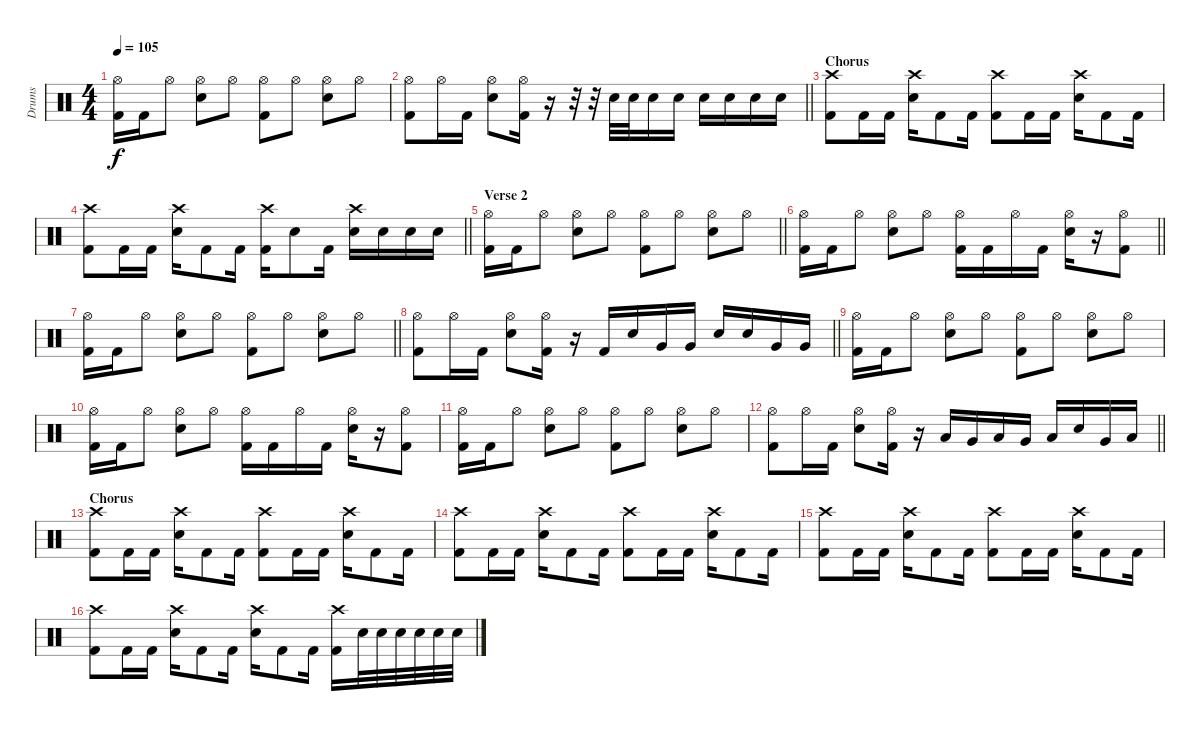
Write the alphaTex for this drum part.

\track ("Drums" "Drums") {instrument percussion}
\staff {score}
\articulation defaults
\ts (4 4)
\tempo 105
\clef neutral
\ks c
("Hi-Hat (open)" "Kick (hit) 2").16{dy f} "Kick (hit) 2".16 "Hi-Hat (open)".8 ("Hi-Hat (open)" "Snare (hit) 2").8 "Hi-Hat (open)".8 ("Hi-Hat (open)" "Kick (hit) 2").8 "Hi-Hat (open)".8 ("Hi-Hat (open)" "Snare (hit) 2").8 "Hi-Hat (open)".8 |
\barLineRight lightlight
("Hi-Hat (open)" "Kick (hit) 2").8 "Hi-Hat (open)".16 "Kick (hit) 2".16 ("Hi-Hat (open)" "Snare (hit) 2").8 ("Hi-Hat (open)" "Kick (hit) 2").16 r.16 r.32 r.32 "Snare (hit) 2".32 "Snare (hit) 2".32 "Snare (hit) 2".16 "Snare (hit) 2".16 "Snare (hit) 2".16 "Snare (hit) 2".16 "Snare (hit) 2".16 "Snare (hit) 2".16 |
\section ("" "Chorus")
("Crash high (hit)" "Kick (hit) 2").8 "Kick (hit) 2".16 "Kick (hit) 2".16 ("Crash high (hit)" "Snare (hit) 2").16 "Kick (hit) 2".8 "Kick (hit) 2".16 ("Crash high (hit)" "Kick (hit) 2").8 "Kick (hit) 2".16 "Kick (hit) 2".16 ("Crash high (hit)" "Snare (hit) 2").16 "Kick (hit) 2".8 "Kick (hit) 2".16 |
\barLineRight lightlight
("Crash high (hit)" "Kick (hit) 2").8 "Kick (hit) 2".16 "Kick (hit) 2".16 ("Crash high (hit)" "Snare (hit) 2").16 "Kick (hit) 2".8 "Kick (hit) 2".16 ("Crash high (hit)" "Kick (hit) 2").16 "Snare (hit) 2".8 "Kick (hit) 2".16 ("Crash high (hit)" "Snare (hit) 2").16 "Snare (hit) 2".16 "Snare (hit) 2".16 "Snare (hit) 2".16 |
\section ("" "Verse 2")
\barLineRight lightlight
("Hi-Hat (open)" "Kick (hit) 2").16 "Kick (hit) 2".16 "Hi-Hat (open)".8 ("Hi-Hat (open)" "Snare (hit) 2").8 "Hi-Hat (open)".8 ("Hi-Hat (open)" "Kick (hit) 2").8 "Hi-Hat (open)".8 ("Hi-Hat (open)" "Snare (hit) 2").8 "Hi-Hat (open)".8 |
\barLineRight lightlight
("Hi-Hat (open)" "Kick (hit) 2").16 "Kick (hit) 2".16 "Hi-Hat (open)".8 ("Hi-Hat (open)" "Snare (hit) 2").8 "Hi-Hat (open)".8 ("Hi-Hat (open)" "Kick (hit) 2").16 "Kick (hit) 2".16 "Hi-Hat (open)".16 "Kick (hit) 2".16 ("Hi-Hat (open)" "Snare (hit) 2").16 r.16 ("Hi-Hat (open)" "Kick (hit) 2").8 |
\barLineRight lightlight
("Hi-Hat (open)" "Kick (hit) 2").16 "Kick (hit) 2".16 "Hi-Hat (open)".8 ("Hi-Hat (open)" "Snare (hit) 2").8 "Hi-Hat (open)".8 ("Hi-Hat (open)" "Kick (hit) 2").8 "Hi-Hat (open)".8 ("Hi-Hat (open)" "Snare (hit) 2").8 "Hi-Hat (open)".8 |
\barLineRight lightlight
("Hi-Hat (open)" "Kick (hit) 2").8 "Hi-Hat (open)".16 "Kick (hit) 2".16 ("Hi-Hat (open)" "Snare (hit) 2").8 ("Hi-Hat (open)" "Kick (hit) 2").16 r.16 "Kick (hit) 2".16 "Snare (hit) 2".16 "Very Low Tom (hit)".16 "Very Low Tom (hit)".16 "Snare (hit) 2".16 "Snare (hit) 2".16 "Very Low Tom (hit)".16 "Very Low Tom (hit)".16 |
("Hi-Hat (open)" "Kick (hit) 2").16 "Kick (hit) 2".16 "Hi-Hat (open)".8 ("Hi-Hat (open)" "Snare (hit) 2").8 "Hi-Hat (open)".8 ("Hi-Hat (open)" "Kick (hit) 2").8 "Hi-Hat (open)".8 ("Hi-Hat (open)" "Snare (hit) 2").8 "Hi-Hat (open)".8 |
("Hi-Hat (open)" "Kick (hit) 2").16 "Kick (hit) 2".16 "Hi-Hat (open)".8 ("Hi-Hat (open)" "Snare (hit) 2").8 "Hi-Hat (open)".8 ("Hi-Hat (open)" "Kick (hit) 2").16 "Kick (hit) 2".16 "Hi-Hat (open)".16 "Kick (hit) 2".16 ("Hi-Hat (open)" "Snare (hit) 2").16 r.16 ("Hi-Hat (open)" "Kick (hit) 2").8 |
("Hi-Hat (open)" "Kick (hit) 2").16 "Kick (hit) 2".16 "Hi-Hat (open)".8 ("Hi-Hat (open)" "Snare (hit) 2").8 "Hi-Hat (open)".8 ("Hi-Hat (open)" "Kick (hit) 2").8 "Hi-Hat (open)".8 ("Hi-Hat (open)" "Snare (hit) 2").8 "Hi-Hat (open)".8 |
\barLineRight lightlight
("Hi-Hat (open)" "Kick (hit) 2").8 "Hi-Hat (open)".16 "Kick (hit) 2".16 ("Hi-Hat (open)" "Snare (hit) 2").8 ("Hi-Hat (open)" "Kick (hit) 2").16 r.16 "Low Floor Tom (hit)".16 "Very Low Tom (hit)".16 "Low Floor Tom (hit)".16 "Very Low Tom (hit)".16 "Low Floor Tom (hit)".16 "Snare (hit) 2".16 "Very Low Tom (hit)".16 "Low Floor Tom (hit)".16 |
\section ("" "Chorus")
("Crash high (hit)" "Kick (hit) 2").8 "Kick (hit) 2".16 "Kick (hit) 2".16 ("Crash high (hit)" "Snare (hit) 2").16 "Kick (hit) 2".8 "Kick (hit) 2".16 ("Crash high (hit)" "Kick (hit) 2").8 "Kick (hit) 2".16 "Kick (hit) 2".16 ("Crash high (hit)" "Snare (hit) 2").16 "Kick (hit) 2".8 "Kick (hit) 2".16 |
("Crash high (hit)" "Kick (hit) 2").8 "Kick (hit) 2".16 "Kick (hit) 2".16 ("Crash high (hit)" "Snare (hit) 2").16 "Kick (hit) 2".8 "Kick (hit) 2".16 ("Crash high (hit)" "Kick (hit) 2").8 "Kick (hit) 2".16 "Kick (hit) 2".16 ("Crash high (hit)" "Snare (hit) 2").16 "Kick (hit) 2".8 "Kick (hit) 2".16 |
("Crash high (hit)" "Kick (hit) 2").8 "Kick (hit) 2".16 "Kick (hit) 2".16 ("Crash high (hit)" "Snare (hit) 2").16 "Kick (hit) 2".8 "Kick (hit) 2".16 ("Crash high (hit)" "Kick (hit) 2").8 "Kick (hit) 2".16 "Kick (hit) 2".16 ("Crash high (hit)" "Snare (hit) 2").16 "Kick (hit) 2".8 "Kick (hit) 2".16 |
("Crash high (hit)" "Kick (hit) 2").8 "Kick (hit) 2".16 "Kick (hit) 2".16 ("Crash high (hit)" "Snare (hit) 2").16 "Kick (hit) 2".8 "Kick (hit) 2".16 ("Crash high (hit)" "Snare (hit) 2").16 "Kick (hit) 2".8 "Kick (hit) 2".16 ("Crash high (hit)" "Kick (hit) 2").16 "Snare (hit) 2".32 "Snare (hit) 2".32 "Snare (hit) 2".32 "Snare (hit) 2".32 "Snare (hit) 2".32 "Snare (hit) 2".32
